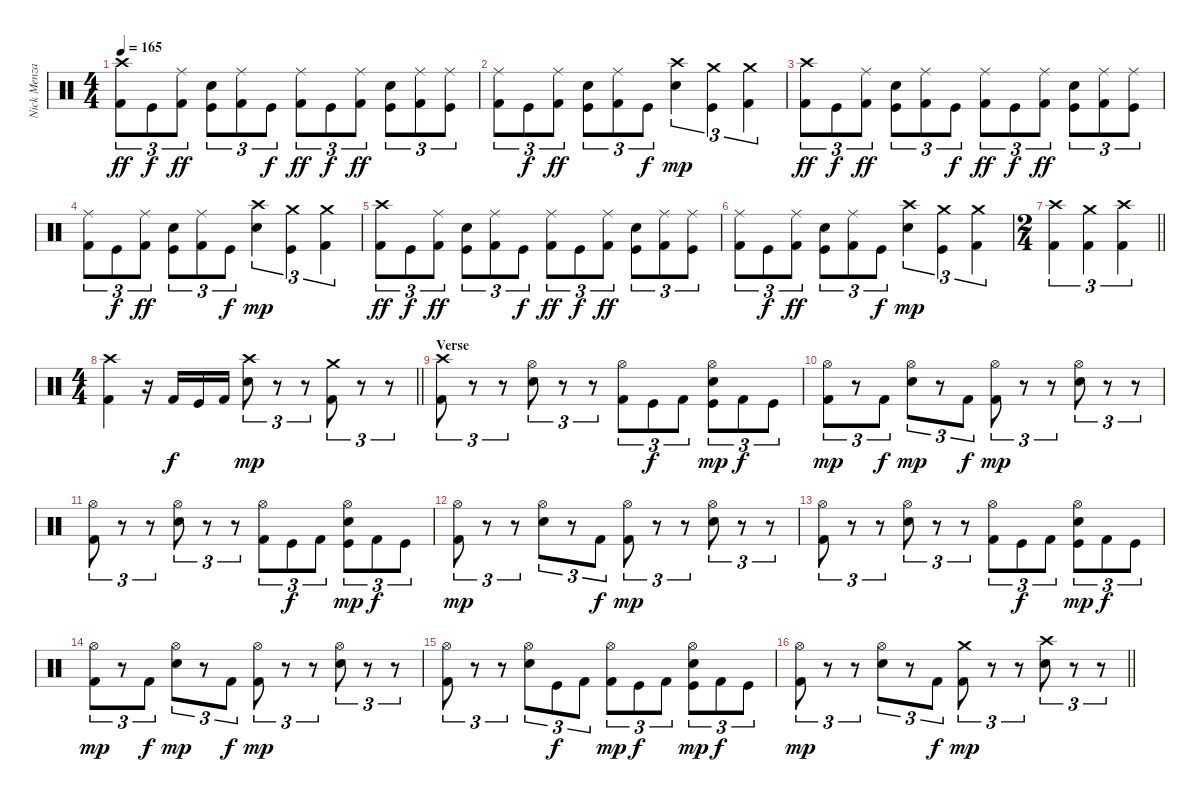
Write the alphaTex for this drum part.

\track ("Nick Menza" "Nick Menza") {solo instrument percussion}
\staff {score}
\articulation defaults
\ts (4 4)
\tempo 165
\clef neutral
\ks c
("Crash high (hit)" "Kick (hit) 2").8{tu (3 2) dy ff} "Kick (hit)".8{tu (3 2) dy f} ("Ride (middle)" "Kick (hit) 2").8{tu (3 2) dy ff} ("Electric Snare (hit)" "Kick (hit)").8{tu (3 2)} ("Ride (middle)" "Kick (hit) 2").8{tu (3 2)} "Kick (hit)".8{tu (3 2) dy f} ("Ride (middle)" "Kick (hit) 2").8{tu (3 2) dy ff} "Kick (hit)".8{tu (3 2) dy f} ("Ride (middle)" "Kick (hit) 2").8{tu (3 2) dy ff} ("Electric Snare (hit)" "Kick (hit)").8{tu (3 2)} ("Ride (middle)" "Kick (hit) 2").8{tu (3 2)} ("Ride (middle)" "Kick (hit)").8{tu (3 2)} |
("Ride (middle)" "Kick (hit) 2").8{tu (3 2)} "Kick (hit)".8{tu (3 2) dy f} ("Ride (middle)" "Kick (hit) 2").8{tu (3 2) dy ff} ("Electric Snare (hit)" "Kick (hit)").8{tu (3 2)} ("Ride (middle)" "Kick (hit) 2").8{tu (3 2)} "Kick (hit)".8{tu (3 2) dy f} ("Crash high (hit)" "Electric Snare (hit)").4{tu (3 2) dy mp} ("Crash medium (hit)" "Kick (hit)").4{tu (3 2)} ("Crash medium (hit)" "Kick (hit) 2").4{tu (3 2)} |
("Crash high (hit)" "Kick (hit) 2").8{tu (3 2) dy ff} "Kick (hit)".8{tu (3 2) dy f} ("Ride (middle)" "Kick (hit) 2").8{tu (3 2) dy ff} ("Electric Snare (hit)" "Kick (hit)").8{tu (3 2)} ("Ride (middle)" "Kick (hit) 2").8{tu (3 2)} "Kick (hit)".8{tu (3 2) dy f} ("Ride (middle)" "Kick (hit) 2").8{tu (3 2) dy ff} "Kick (hit)".8{tu (3 2) dy f} ("Ride (middle)" "Kick (hit) 2").8{tu (3 2) dy ff} ("Electric Snare (hit)" "Kick (hit)").8{tu (3 2)} ("Ride (middle)" "Kick (hit) 2").8{tu (3 2)} ("Ride (middle)" "Kick (hit)").8{tu (3 2)} |
("Ride (middle)" "Kick (hit) 2").8{tu (3 2)} "Kick (hit)".8{tu (3 2) dy f} ("Ride (middle)" "Kick (hit) 2").8{tu (3 2) dy ff} ("Electric Snare (hit)" "Kick (hit)").8{tu (3 2)} ("Ride (middle)" "Kick (hit) 2").8{tu (3 2)} "Kick (hit)".8{tu (3 2) dy f} ("Crash high (hit)" "Electric Snare (hit)").4{tu (3 2) dy mp} ("Crash medium (hit)" "Kick (hit)").4{tu (3 2)} ("Crash medium (hit)" "Kick (hit) 2").4{tu (3 2)} |
("Crash high (hit)" "Kick (hit) 2").8{tu (3 2) dy ff} "Kick (hit)".8{tu (3 2) dy f} ("Ride (middle)" "Kick (hit) 2").8{tu (3 2) dy ff} ("Electric Snare (hit)" "Kick (hit)").8{tu (3 2)} ("Ride (middle)" "Kick (hit) 2").8{tu (3 2)} "Kick (hit)".8{tu (3 2) dy f} ("Ride (middle)" "Kick (hit) 2").8{tu (3 2) dy ff} "Kick (hit)".8{tu (3 2) dy f} ("Ride (middle)" "Kick (hit) 2").8{tu (3 2) dy ff} ("Electric Snare (hit)" "Kick (hit)").8{tu (3 2)} ("Ride (middle)" "Kick (hit) 2").8{tu (3 2)} ("Ride (middle)" "Kick (hit)").8{tu (3 2)} |
("Ride (middle)" "Kick (hit) 2").8{tu (3 2)} "Kick (hit)".8{tu (3 2) dy f} ("Ride (middle)" "Kick (hit) 2").8{tu (3 2) dy ff} ("Electric Snare (hit)" "Kick (hit)").8{tu (3 2)} ("Ride (middle)" "Kick (hit) 2").8{tu (3 2)} "Kick (hit)".8{tu (3 2) dy f} ("Crash high (hit)" "Electric Snare (hit)").4{tu (3 2) dy mp} ("Crash medium (hit)" "Kick (hit)").4{tu (3 2)} ("Crash medium (hit)" "Kick (hit) 2").4{tu (3 2)} |
\ts (2 4)
\barLineRight lightlight
("Crash high (hit)" "Kick (hit) 2").4{tu (3 2)} ("Crash medium (hit)" "Kick (hit) 2").4{tu (3 2)} ("Crash high (hit)" "Kick (hit) 2").4{tu (3 2)} |
\ts (4 4)
\barLineRight lightlight
("Crash high (hit)" "Kick (hit) 2").4 r.16 "Kick (hit) 2".16{dy f} "Kick (hit)".16 "Kick (hit) 2".16 ("Crash high (hit)" "Electric Snare (hit)").8{tu (3 2) dy mp} r.8{tu (3 2)} r.8{tu (3 2)} ("Crash medium (hit)" "Kick (hit) 2").8{tu (3 2)} r.8{tu (3 2)} r.8{tu (3 2)} |
\section ("" "Verse")
("Crash high (hit)" "Kick (hit) 2").8{tu (3 2)} r.8{tu (3 2)} r.8{tu (3 2)} ("Hi-Hat (open)" "Electric Snare (hit)").8{tu (3 2)} r.8{tu (3 2)} r.8{tu (3 2)} ("Hi-Hat (open)" "Kick (hit) 2").8{tu (3 2)} "Kick (hit)".8{tu (3 2) dy f} "Kick (hit) 2".8{tu (3 2)} ("Hi-Hat (open)" "Electric Snare (hit)" "Kick (hit)").8{tu (3 2) dy mp} "Kick (hit) 2".8{tu (3 2) dy f} "Kick (hit)".8{tu (3 2)} |
("Hi-Hat (open)" "Kick (hit) 2").8{tu (3 2) dy mp} r.8{tu (3 2)} "Kick (hit) 2".8{tu (3 2) dy f} ("Hi-Hat (open)" "Electric Snare (hit)").8{tu (3 2) dy mp} r.8{tu (3 2)} "Kick (hit) 2".8{tu (3 2) dy f} ("Hi-Hat (open)" "Kick (hit) 2").8{tu (3 2) dy mp} r.8{tu (3 2)} r.8{tu (3 2)} ("Hi-Hat (open)" "Electric Snare (hit)").8{tu (3 2)} r.8{tu (3 2)} r.8{tu (3 2)} |
("Hi-Hat (open)" "Kick (hit) 2").8{tu (3 2)} r.8{tu (3 2)} r.8{tu (3 2)} ("Hi-Hat (open)" "Electric Snare (hit)").8{tu (3 2)} r.8{tu (3 2)} r.8{tu (3 2)} ("Hi-Hat (open)" "Kick (hit) 2").8{tu (3 2)} "Kick (hit)".8{tu (3 2) dy f} "Kick (hit) 2".8{tu (3 2)} ("Hi-Hat (open)" "Electric Snare (hit)" "Kick (hit)").8{tu (3 2) dy mp} "Kick (hit) 2".8{tu (3 2) dy f} "Kick (hit)".8{tu (3 2)} |
("Hi-Hat (open)" "Kick (hit) 2").8{tu (3 2) dy mp} r.8{tu (3 2)} r.8{tu (3 2)} ("Hi-Hat (open)" "Electric Snare (hit)").8{tu (3 2)} r.8{tu (3 2)} "Kick (hit) 2".8{tu (3 2) dy f} ("Hi-Hat (open)" "Kick (hit) 2").8{tu (3 2) dy mp} r.8{tu (3 2)} r.8{tu (3 2)} ("Hi-Hat (open)" "Electric Snare (hit)").8{tu (3 2)} r.8{tu (3 2)} r.8{tu (3 2)} |
("Hi-Hat (open)" "Kick (hit) 2").8{tu (3 2)} r.8{tu (3 2)} r.8{tu (3 2)} ("Hi-Hat (open)" "Electric Snare (hit)").8{tu (3 2)} r.8{tu (3 2)} r.8{tu (3 2)} ("Hi-Hat (open)" "Kick (hit) 2").8{tu (3 2)} "Kick (hit)".8{tu (3 2) dy f} "Kick (hit) 2".8{tu (3 2)} ("Hi-Hat (open)" "Electric Snare (hit)" "Kick (hit)").8{tu (3 2) dy mp} "Kick (hit) 2".8{tu (3 2) dy f} "Kick (hit)".8{tu (3 2)} |
("Hi-Hat (open)" "Kick (hit) 2").8{tu (3 2) dy mp} r.8{tu (3 2)} "Kick (hit) 2".8{tu (3 2) dy f} ("Hi-Hat (open)" "Electric Snare (hit)").8{tu (3 2) dy mp} r.8{tu (3 2)} "Kick (hit) 2".8{tu (3 2) dy f} ("Hi-Hat (open)" "Kick (hit) 2").8{tu (3 2) dy mp} r.8{tu (3 2)} r.8{tu (3 2)} ("Hi-Hat (open)" "Electric Snare (hit)").8{tu (3 2)} r.8{tu (3 2)} r.8{tu (3 2)} |
("Hi-Hat (open)" "Kick (hit) 2").8{tu (3 2)} r.8{tu (3 2)} r.8{tu (3 2)} ("Hi-Hat (open)" "Electric Snare (hit)").8{tu (3 2)} "Kick (hit)".8{tu (3 2) dy f} "Kick (hit) 2".8{tu (3 2)} ("Hi-Hat (open)" "Kick (hit) 2").8{tu (3 2) dy mp} "Kick (hit)".8{tu (3 2) dy f} "Kick (hit) 2".8{tu (3 2)} ("Hi-Hat (open)" "Electric Snare (hit)" "Kick (hit)").8{tu (3 2) dy mp} "Kick (hit) 2".8{tu (3 2) dy f} "Kick (hit)".8{tu (3 2)} |
\barLineRight lightlight
("Hi-Hat (open)" "Kick (hit) 2").8{tu (3 2) dy mp} r.8{tu (3 2)} r.8{tu (3 2)} ("Hi-Hat (open)" "Electric Snare (hit)").8{tu (3 2)} r.8{tu (3 2)} "Kick (hit) 2".8{tu (3 2) dy f} ("Crash medium (hit)" "Kick (hit) 2").8{tu (3 2) dy mp} r.8{tu (3 2)} r.8{tu (3 2)} ("Crash high (hit)" "Electric Snare (hit)").8{tu (3 2)} r.8{tu (3 2)} r.8{tu (3 2)}
